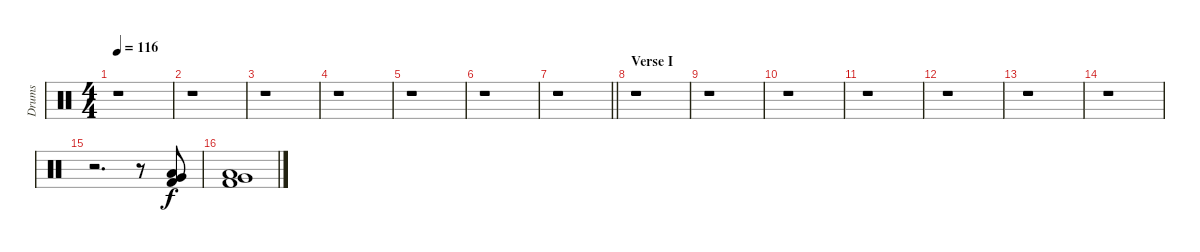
\track ("Drums" "Drums") {instrument percussion}
\staff {score}
\articulation defaults
\ts (4 4)
\tempo 116
\clef neutral
\ks c
r.1{dy f} |
r.1 |
r.1 |
r.1 |
r.1 |
r.1 |
\barLineRight lightlight
r.1 |
\section ("" "Verse I")
r.1 |
r.1 |
r.1 |
r.1 |
r.1 |
r.1 |
r.1 |
r.2{d} r.8 ("Very Low Tom (hit)" "Low Floor Tom (hit)" "Kick (hit) 2").8 |
("Very Low Tom (hit)" "Low Floor Tom (hit)" "Kick (hit) 2").1
